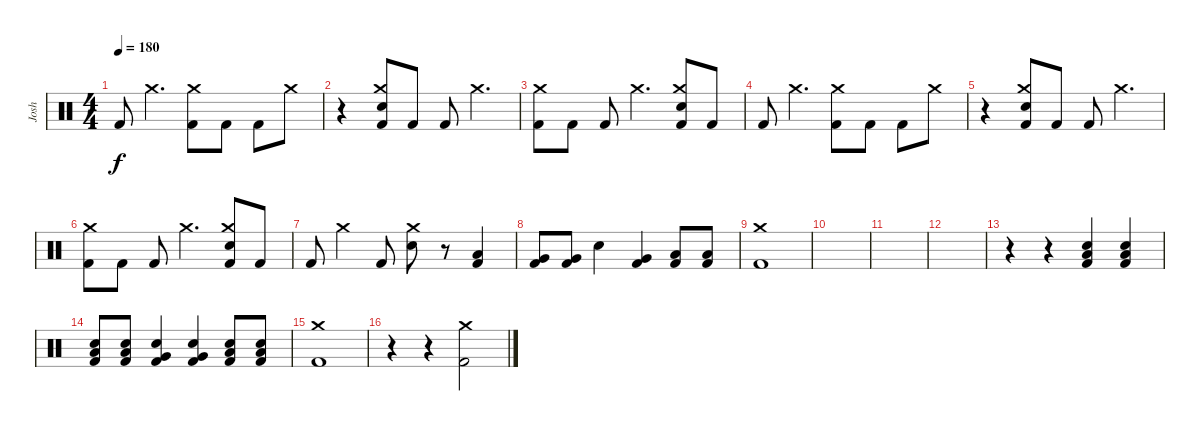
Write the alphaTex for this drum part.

\track ("Josh" "Josh") {instrument percussion}
\staff {score}
\articulation defaults
\ts (4 4)
\tempo 180
\clef neutral
\ks c "Kick (hit) 2".8{dy f} "Crash medium (hit)".4{d}
("Crash medium (hit)" "Kick (hit) 2").8 "Kick (hit) 2".8 "Kick (hit) 2".8 "Crash medium (hit)".8 |
r.4 ("Crash medium (hit)" "Electric Snare (hit)" "Kick (hit) 2").8 "Kick (hit) 2".8 "Kick (hit) 2".8 "Crash medium (hit)".4{d} |
("Crash medium (hit)" "Kick (hit) 2").8 "Kick (hit) 2".8 "Kick (hit) 2".8 "Crash medium (hit)".4{d} ("Crash medium (hit)" "Electric Snare (hit)" "Kick (hit) 2").8 "Kick (hit) 2".8 |
"Kick (hit) 2".8 "Crash medium (hit)".4{d} ("Crash medium (hit)" "Kick (hit) 2").8 "Kick (hit) 2".8 "Kick (hit) 2".8 "Crash medium (hit)".8 |
r.4 ("Crash medium (hit)" "Electric Snare (hit)" "Kick (hit) 2").8 "Kick (hit) 2".8 "Kick (hit) 2".8 "Crash medium (hit)".4{d} |
("Crash medium (hit)" "Kick (hit) 2").8 "Kick (hit) 2".8 "Kick (hit) 2".8 "Crash medium (hit)".4{d} ("Crash medium (hit)" "Electric Snare (hit)" "Kick (hit) 2").8 "Kick (hit) 2".8 |
"Kick (hit) 2".8 "Crash medium (hit)".4 "Kick (hit) 2".8 ("Crash medium (hit)" "Electric Snare (hit)").8 r.8 ("Low Tom (hit)" "Kick (hit) 2").4 |
("Very Low Tom (hit)" "Kick (hit) 2").8 ("Very Low Tom (hit)" "Kick (hit) 2").8 "Electric Snare (hit)".4 ("Very Low Tom (hit)" "Kick (hit) 2").4 ("Low Floor Tom (hit)" "Kick (hit) 2").8 ("Low Floor Tom (hit)" "Kick (hit) 2").8 |
("Crash medium (hit)" "Kick (hit) 2").1 |
|
|
|
r.4 r.4 ("Electric Snare (hit)" "Low Tom (hit)" "Kick (hit) 2").4 ("Electric Snare (hit)" "Low Tom (hit)" "Kick (hit) 2").4 |
("Electric Snare (hit)" "Low Tom (hit)" "Kick (hit) 2").8 ("Electric Snare (hit)" "Low Tom (hit)" "Kick (hit) 2").8 ("Electric Snare (hit)" "Very Low Tom (hit)" "Kick (hit) 2").4 ("Electric Snare (hit)" "Very Low Tom (hit)" "Kick (hit) 2").4 ("Electric Snare (hit)" "Low Floor Tom (hit)" "Kick (hit) 2").8 ("Electric Snare (hit)" "Low Floor Tom (hit)" "Kick (hit) 2").8 |
("Crash medium (hit)" "Kick (hit) 2").1 |
r.4 r.4 ("Crash medium (hit)" "Kick (hit) 2").2
